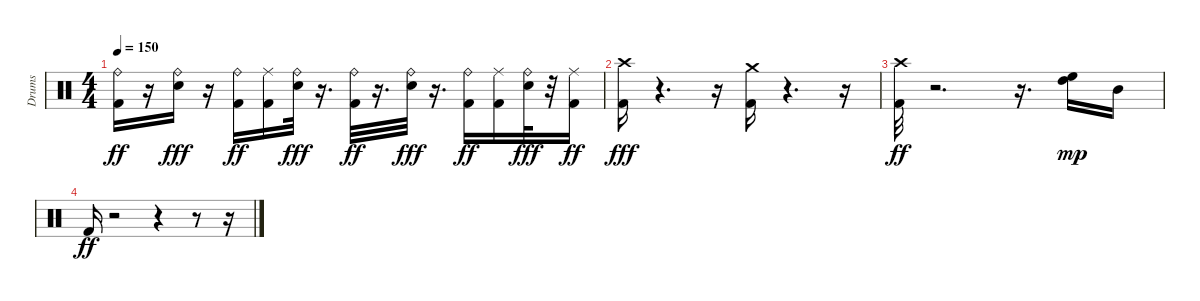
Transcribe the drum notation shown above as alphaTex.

\track ("Drums" "Drums") {instrument percussion}
\staff {score}
\articulation defaults
\ts (4 4)
\tempo 150
\clef neutral
\ks c
("Ride (bell)" "Kick (hit) 2").16{dy ff} r.16 ("Electric Snare (hit)" "Ride (bell)").16{dy fff} r.16 ("Ride (bell)" "Kick (hit) 2").16{dy ff} ("Ride (middle)" "Kick (hit) 2").16 ("Electric Snare (hit)" "Ride (bell)").32{dy fff} r.16{d} ("Ride (bell)" "Kick (hit) 2").32{dy ff} r.16{d} ("Electric Snare (hit)" "Ride (bell)").32{dy fff} r.16{d} ("Ride (bell)" "Kick (hit) 2").16{dy ff} ("Kick (hit) 2" "Ride (middle)").16 ("Ride (bell)" "Electric Snare (hit)").32{dy fff} r.32 ("Kick (hit) 2" "Ride (middle)").16{dy ff} |
("Crash high (hit)" "Kick (hit) 2").16{dy fff} r.4{d} r.16 ("Kick (hit) 2" "Crash medium (hit)").16 r.4{d} r.16 |
("Crash high (hit)" "Kick (hit) 2").32{dy ff} r.2{d} r.16{d} ("High Floor Tom (hit)" "High Tom (hit)").16{dy mp} "Mid Tom (hit)".16 |
"Kick (hit) 2".16{dy ff} r.2 r.4 r.8 r.16
